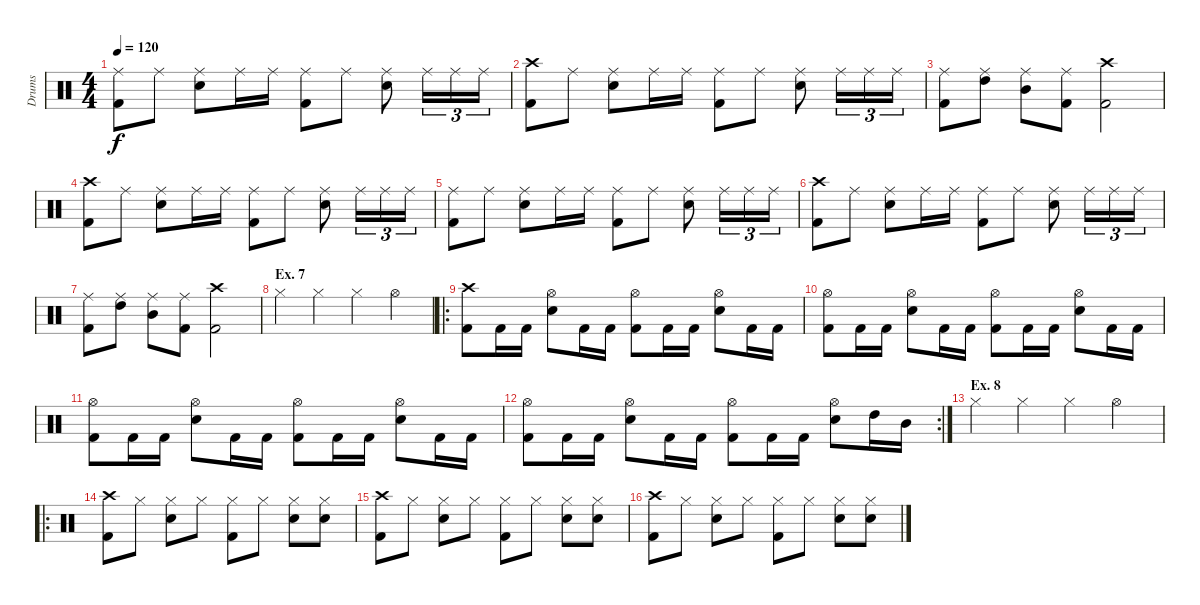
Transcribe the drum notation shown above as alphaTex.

\track ("Drums" "Drums") {instrument percussion}
\staff {score}
\articulation defaults
\ts (4 4)
\tempo 120
\clef neutral
\ks c
("Ride (middle)" "Kick (hit) 2").8{dy f} "Ride (middle)".8 ("Ride (middle)" "Snare (hit) 2").8 "Ride (middle)".16 "Ride (middle)".16 ("Ride (middle)" "Kick (hit) 2").8 "Ride (middle)".8 ("Ride (middle)" "Snare (hit) 2").8 "Ride (middle)".16{tu (3 2)} "Ride (middle)".16{tu (3 2)} "Ride (middle)".16{tu (3 2)} |
("Crash high (hit)" "Kick (hit) 2").8 "Ride (middle)".8 ("Ride (middle)" "Snare (hit) 2").8 "Ride (middle)".16 "Ride (middle)".16 ("Ride (middle)" "Kick (hit) 2").8 "Ride (middle)".8 ("Ride (middle)" "Snare (hit) 2").8 "Ride (middle)".16{tu (3 2)} "Ride (middle)".16{tu (3 2)} "Ride (middle)".16{tu (3 2)} |
("Ride (middle)" "Kick (hit) 2").8 ("Ride (middle)" "High Tom (hit)").8 ("Ride (middle)" "Mid Tom (hit)").8 ("Ride (middle)" "Kick (hit) 2").8 ("Crash high (hit)" "Kick (hit) 2").2 |
("Crash high (hit)" "Kick (hit) 2").8 "Ride (middle)".8 ("Ride (middle)" "Snare (hit) 2").8 "Ride (middle)".16 "Ride (middle)".16 ("Ride (middle)" "Kick (hit) 2").8 "Ride (middle)".8 ("Ride (middle)" "Snare (hit) 2").8 "Ride (middle)".16{tu (3 2)} "Ride (middle)".16{tu (3 2)} "Ride (middle)".16{tu (3 2)} |
("Ride (middle)" "Kick (hit) 2").8 "Ride (middle)".8 ("Ride (middle)" "Snare (hit) 2").8 "Ride (middle)".16 "Ride (middle)".16 ("Ride (middle)" "Kick (hit) 2").8 "Ride (middle)".8 ("Ride (middle)" "Snare (hit) 2").8 "Ride (middle)".16{tu (3 2)} "Ride (middle)".16{tu (3 2)} "Ride (middle)".16{tu (3 2)} |
("Crash high (hit)" "Kick (hit) 2").8 "Ride (middle)".8 ("Ride (middle)" "Snare (hit) 2").8 "Ride (middle)".16 "Ride (middle)".16 ("Ride (middle)" "Kick (hit) 2").8 "Ride (middle)".8 ("Ride (middle)" "Snare (hit) 2").8 "Ride (middle)".16{tu (3 2)} "Ride (middle)".16{tu (3 2)} "Ride (middle)".16{tu (3 2)} |
("Ride (middle)" "Kick (hit) 2").8 ("Ride (middle)" "High Tom (hit)").8 ("Ride (middle)" "Mid Tom (hit)").8 ("Ride (middle)" "Kick (hit) 2").8 ("Crash high (hit)" "Kick (hit) 2").2 |
\section ("" "Ex. 7")
"Hi-Hat (closed)".4 "Hi-Hat (closed)".4 "Hi-Hat (closed)".4 "Hi-Hat (open)".4 |
\ro
("Crash high (hit)" "Kick (hit) 2").8 "Kick (hit) 2".16 "Kick (hit) 2".16 ("Hi-Hat (open)" "Snare (hit) 2").8 "Kick (hit) 2".16 "Kick (hit) 2".16 ("Hi-Hat (open)" "Kick (hit) 2").8 "Kick (hit) 2".16 "Kick (hit) 2".16 ("Hi-Hat (open)" "Snare (hit) 2").8 "Kick (hit) 2".16 "Kick (hit) 2".16 |
("Hi-Hat (open)" "Kick (hit) 2").8 "Kick (hit) 2".16 "Kick (hit) 2".16 ("Hi-Hat (open)" "Snare (hit) 2").8 "Kick (hit) 2".16 "Kick (hit) 2".16 ("Hi-Hat (open)" "Kick (hit) 2").8 "Kick (hit) 2".16 "Kick (hit) 2".16 ("Hi-Hat (open)" "Snare (hit) 2").8 "Kick (hit) 2".16 "Kick (hit) 2".16 |
("Hi-Hat (open)" "Kick (hit) 2").8 "Kick (hit) 2".16 "Kick (hit) 2".16 ("Hi-Hat (open)" "Snare (hit) 2").8 "Kick (hit) 2".16 "Kick (hit) 2".16 ("Hi-Hat (open)" "Kick (hit) 2").8 "Kick (hit) 2".16 "Kick (hit) 2".16 ("Hi-Hat (open)" "Snare (hit) 2").8 "Kick (hit) 2".16 "Kick (hit) 2".16 |
\rc 2
("Hi-Hat (open)" "Kick (hit) 2").8 "Kick (hit) 2".16 "Kick (hit) 2".16 ("Hi-Hat (open)" "Snare (hit) 2").8 "Kick (hit) 2".16 "Kick (hit) 2".16 ("Hi-Hat (open)" "Kick (hit) 2").8 "Kick (hit) 2".16 "Kick (hit) 2".16 ("Hi-Hat (open)" "Snare (hit) 2").8 "High Tom (hit)".16 "Mid Tom (hit)".16 |
\section ("" "Ex. 8")
"Hi-Hat (closed)".4 "Hi-Hat (closed)".4 "Hi-Hat (closed)".4 "Hi-Hat (open)".4 |
\ro
("Crash high (hit)" "Kick (hit) 2").8 "Hi-Hat (closed)".8 ("Hi-Hat (closed)" "Snare (hit) 2").8 "Hi-Hat (closed)".8 ("Hi-Hat (closed)" "Kick (hit) 2").8 "Hi-Hat (closed)".8 ("Hi-Hat (closed)" "Snare (hit) 2").8 ("Hi-Hat (closed)" "Snare (hit) 2").8 |
("Crash high (hit)" "Kick (hit) 2").8 "Hi-Hat (closed)".8 ("Hi-Hat (closed)" "Snare (hit) 2").8 "Hi-Hat (closed)".8 ("Hi-Hat (closed)" "Kick (hit) 2").8 "Hi-Hat (closed)".8 ("Hi-Hat (closed)" "Snare (hit) 2").8 ("Hi-Hat (closed)" "Snare (hit) 2").8 |
("Crash high (hit)" "Kick (hit) 2").8 "Hi-Hat (closed)".8 ("Hi-Hat (closed)" "Snare (hit) 2").8 "Hi-Hat (closed)".8 ("Hi-Hat (closed)" "Kick (hit) 2").8 "Hi-Hat (closed)".8 ("Hi-Hat (closed)" "Snare (hit) 2").8 ("Hi-Hat (closed)" "Snare (hit) 2").8
